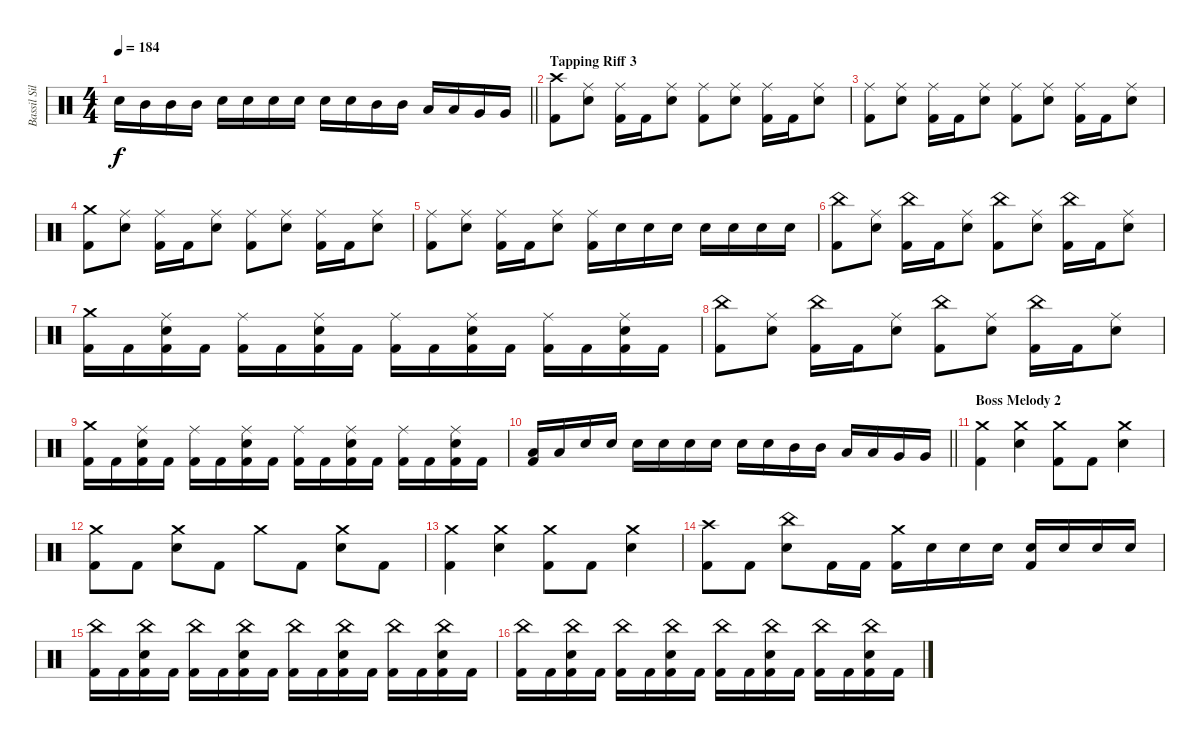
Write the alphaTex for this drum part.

\track ("Bassil Silver-Hajo" "Bassil Sil") {instrument percussion}
\staff {score}
\articulation defaults
\ts (4 4)
\tempo 184
\clef neutral
\barLineRight lightlight
\ks c "Snare (hit) 2".16{dy f} "Mid Tom (hit)".16 "Mid Tom (hit)".16 "Mid Tom (hit)".16 "Snare (hit) 2".16 "Snare (hit) 2".16 "Snare (hit) 2".16 "Snare (hit) 2".16 "Snare (hit) 2".16 "Snare (hit) 2".16 "Mid Tom (hit)".16 "Mid Tom (hit)".16 "Low Tom (hit)".16 "Low Tom (hit)".16 "Very Low Tom (hit)".16 "Very Low Tom (hit)".16
|
\section ("" "Tapping Riff 3")
("Crash high (hit)" "Kick (hit) 2").8 ("Ride (middle)" "Snare (hit) 2").8 ("Ride (middle)" "Kick (hit) 2").16 "Kick (hit) 2".16 ("Ride (middle)" "Snare (hit) 2").8 ("Ride (middle)" "Kick (hit) 2").8 ("Ride (middle)" "Snare (hit) 2").8 ("Ride (middle)" "Kick (hit) 2").16 "Kick (hit) 2".16 ("Ride (middle)" "Snare (hit) 2").8 |
("Ride (middle)" "Kick (hit) 2").8 ("Ride (middle)" "Snare (hit) 2").8 ("Ride (middle)" "Kick (hit) 2").16 "Kick (hit) 2".16 ("Ride (middle)" "Snare (hit) 2").8 ("Ride (middle)" "Kick (hit) 2").8 ("Ride (middle)" "Snare (hit) 2").8 ("Ride (middle)" "Kick (hit) 2").16 "Kick (hit) 2".16 ("Ride (middle)" "Snare (hit) 2").8 |
("Crash medium (hit)" "Kick (hit) 2").8 ("Ride (middle)" "Snare (hit) 2").8 ("Ride (middle)" "Kick (hit) 2").16 "Kick (hit) 2".16 ("Ride (middle)" "Snare (hit) 2").8 ("Ride (middle)" "Kick (hit) 2").8 ("Ride (middle)" "Snare (hit) 2").8 ("Ride (middle)" "Kick (hit) 2").16 "Kick (hit) 2".16 ("Ride (middle)" "Snare (hit) 2").8 |
("Ride (middle)" "Kick (hit) 2").8 ("Ride (middle)" "Snare (hit) 2").8 ("Ride (middle)" "Kick (hit) 2").16 "Kick (hit) 2".16 ("Ride (middle)" "Snare (hit) 2").8 ("Ride (middle)" "Kick (hit) 2").16 "Snare (hit) 2".16 "Snare (hit) 2".16 "Snare (hit) 2".16 "Snare (hit) 2".16 "Snare (hit) 2".16 "Snare (hit) 2".16 "Snare (hit) 2".16 |
("China (hit)" "Kick (hit) 2").8 ("Ride (middle)" "Snare (hit) 2").8 ("China (hit)" "Kick (hit) 2").16 "Kick (hit) 2".16 ("Ride (middle)" "Snare (hit) 2").8 ("China (hit)" "Kick (hit) 2").8 ("Ride (middle)" "Snare (hit) 2").8 ("China (hit)" "Kick (hit) 2").16 "Kick (hit) 2".16 ("Ride (middle)" "Snare (hit) 2").8 |
("Crash medium (hit)" "Kick (hit) 2").16 "Kick (hit) 2".16 ("Ride (middle)" "Snare (hit) 2" "Kick (hit) 2").16 "Kick (hit) 2".16 ("Ride (middle)" "Kick (hit) 2").16 "Kick (hit) 2".16 ("Ride (middle)" "Snare (hit) 2" "Kick (hit) 2").16 "Kick (hit) 2".16 ("Ride (middle)" "Kick (hit) 2").16 "Kick (hit) 2".16 ("Ride (middle)" "Snare (hit) 2" "Kick (hit) 2").16 "Kick (hit) 2".16 ("Ride (middle)" "Kick (hit) 2").16 "Kick (hit) 2".16 ("Ride (middle)" "Snare (hit) 2" "Kick (hit) 2").16 "Kick (hit) 2".16 |
("China (hit)" "Kick (hit) 2").8 ("Ride (middle)" "Snare (hit) 2").8 ("China (hit)" "Kick (hit) 2").16 "Kick (hit) 2".16 ("Ride (middle)" "Snare (hit) 2").8 ("China (hit)" "Kick (hit) 2").8 ("Ride (middle)" "Snare (hit) 2").8 ("China (hit)" "Kick (hit) 2").16 "Kick (hit) 2".16 ("Ride (middle)" "Snare (hit) 2").8 |
("Crash medium (hit)" "Kick (hit) 2").16 "Kick (hit) 2".16 ("Ride (middle)" "Snare (hit) 2" "Kick (hit) 2").16 "Kick (hit) 2".16 ("Ride (middle)" "Kick (hit) 2").16 "Kick (hit) 2".16 ("Ride (middle)" "Snare (hit) 2" "Kick (hit) 2").16 "Kick (hit) 2".16 ("Ride (middle)" "Kick (hit) 2").16 "Kick (hit) 2".16 ("Ride (middle)" "Snare (hit) 2" "Kick (hit) 2").16 "Kick (hit) 2".16 ("Ride (middle)" "Kick (hit) 2").16 "Kick (hit) 2".16 ("Ride (middle)" "Snare (hit) 2" "Kick (hit) 2").16 "Kick (hit) 2".16 |
\barLineRight lightlight
("Low Tom (hit)" "Kick (hit) 2").16 "Low Tom (hit)".16 "Snare (hit) 2".16 "Snare (hit) 2".16 "Snare (hit) 2".16 "Snare (hit) 2".16 "Snare (hit) 2".16 "Snare (hit) 2".16 "Snare (hit) 2".16 "Snare (hit) 2".16 "Mid Tom (hit)".16 "Mid Tom (hit)".16 "Low Tom (hit)".16 "Low Tom (hit)".16 "Very Low Tom (hit)".16 "Very Low Tom (hit)".16 |
\section ("" "Boss Melody 2")
("Crash medium (hit)" "Kick (hit) 2").4 ("Crash medium (hit)" "Snare (hit) 2").4 ("Crash medium (hit)" "Kick (hit) 2").8 "Kick (hit) 2".8 ("Crash medium (hit)" "Snare (hit) 2").4 |
("Crash medium (hit)" "Kick (hit) 2").8 "Kick (hit) 2".8 ("Crash medium (hit)" "Snare (hit) 2").8 "Kick (hit) 2".8 "Crash medium (hit)".8 "Kick (hit) 2".8 ("Crash medium (hit)" "Snare (hit) 2").8 "Kick (hit) 2".8 |
("Crash medium (hit)" "Kick (hit) 2").4 ("Crash medium (hit)" "Snare (hit) 2").4 ("Crash medium (hit)" "Kick (hit) 2").8 "Kick (hit) 2".8 ("Crash medium (hit)" "Snare (hit) 2").4 |
("Crash high (hit)" "Kick (hit) 2").8 "Kick (hit) 2".8 ("China (hit)" "Snare (hit) 2").8 "Kick (hit) 2".16 "Kick (hit) 2".16 ("Crash medium (hit)" "Kick (hit) 2").16 "Snare (hit) 2".16 "Snare (hit) 2".16 "Snare (hit) 2".16 ("Snare (hit) 2" "Kick (hit) 2").16 "Snare (hit) 2".16 "Snare (hit) 2".16 "Snare (hit) 2".16 |
("China (hit)" "Kick (hit) 2").16 "Kick (hit) 2".16 ("China (hit)" "Snare (hit) 2" "Kick (hit) 2").16 "Kick (hit) 2".16 ("China (hit)" "Kick (hit) 2").16 "Kick (hit) 2".16 ("China (hit)" "Snare (hit) 2" "Kick (hit) 2").16 "Kick (hit) 2".16 ("China (hit)" "Kick (hit) 2").16 "Kick (hit) 2".16 ("China (hit)" "Snare (hit) 2" "Kick (hit) 2").16 "Kick (hit) 2".16 ("China (hit)" "Kick (hit) 2").16 "Kick (hit) 2".16 ("China (hit)" "Snare (hit) 2" "Kick (hit) 2").16 "Kick (hit) 2".16 |
("China (hit)" "Kick (hit) 2").16 "Kick (hit) 2".16 ("China (hit)" "Snare (hit) 2" "Kick (hit) 2").16 "Kick (hit) 2".16 ("China (hit)" "Kick (hit) 2").16 "Kick (hit) 2".16 ("China (hit)" "Snare (hit) 2" "Kick (hit) 2").16 "Kick (hit) 2".16 ("China (hit)" "Kick (hit) 2").16 "Kick (hit) 2".16 ("China (hit)" "Snare (hit) 2" "Kick (hit) 2").16 "Kick (hit) 2".16 ("China (hit)" "Kick (hit) 2").16 "Kick (hit) 2".16 ("China (hit)" "Snare (hit) 2" "Kick (hit) 2").16 "Kick (hit) 2".16
